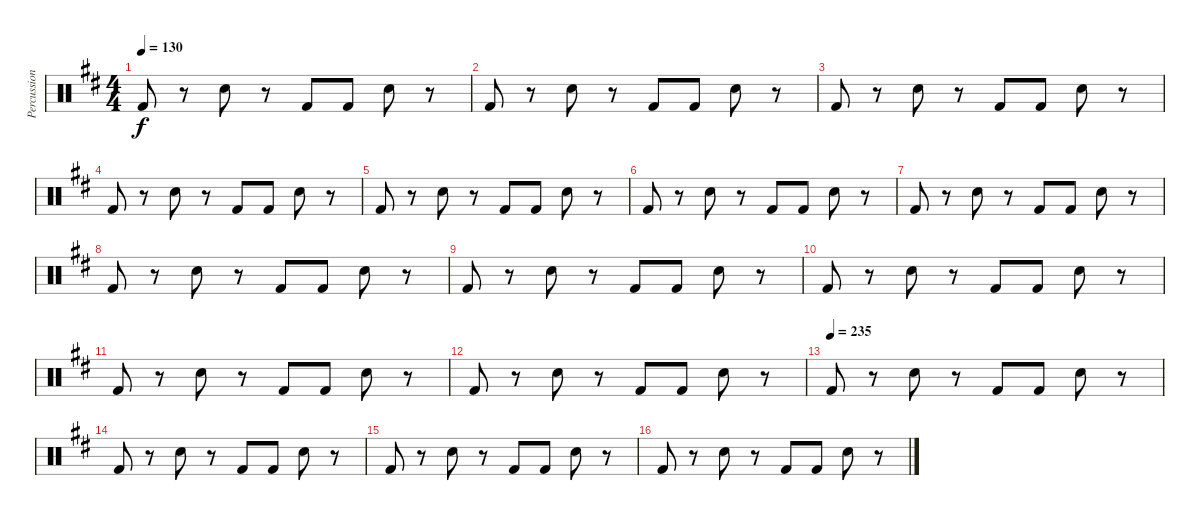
\track ("Percussion" "Percussion") {instrument percussion}
\staff {score}
\articulation defaults
\ts (4 4)
\tempo 130
\clef neutral
\ks d "Kick (hit) 2".8{dy f}
r.8 "Snare (hit) 2".8 r.8 "Kick (hit) 2".8 "Kick (hit) 2".8 "Snare (hit) 2".8 r.8 |
"Kick (hit) 2".8 r.8 "Snare (hit) 2".8 r.8 "Kick (hit) 2".8 "Kick (hit) 2".8 "Snare (hit) 2".8 r.8 |
"Kick (hit) 2".8 r.8 "Snare (hit) 2".8 r.8 "Kick (hit) 2".8 "Kick (hit) 2".8 "Snare (hit) 2".8 r.8 |
"Kick (hit) 2".8 r.8 "Snare (hit) 2".8 r.8 "Kick (hit) 2".8 "Kick (hit) 2".8 "Snare (hit) 2".8 r.8 |
"Kick (hit) 2".8 r.8 "Snare (hit) 2".8 r.8 "Kick (hit) 2".8 "Kick (hit) 2".8 "Snare (hit) 2".8 r.8 |
"Kick (hit) 2".8 r.8 "Snare (hit) 2".8 r.8 "Kick (hit) 2".8 "Kick (hit) 2".8 "Snare (hit) 2".8 r.8 |
"Kick (hit) 2".8 r.8 "Snare (hit) 2".8 r.8 "Kick (hit) 2".8 "Kick (hit) 2".8 "Snare (hit) 2".8 r.8 |
"Kick (hit) 2".8 r.8 "Snare (hit) 2".8 r.8 "Kick (hit) 2".8 "Kick (hit) 2".8 "Snare (hit) 2".8 r.8 |
"Kick (hit) 2".8 r.8 "Snare (hit) 2".8 r.8 "Kick (hit) 2".8 "Kick (hit) 2".8 "Snare (hit) 2".8 r.8 |
"Kick (hit) 2".8 r.8 "Snare (hit) 2".8 r.8 "Kick (hit) 2".8 "Kick (hit) 2".8 "Snare (hit) 2".8 r.8 |
"Kick (hit) 2".8 r.8 "Snare (hit) 2".8 r.8 "Kick (hit) 2".8 "Kick (hit) 2".8 "Snare (hit) 2".8 r.8 |
"Kick (hit) 2".8 r.8 "Snare (hit) 2".8 r.8 "Kick (hit) 2".8 "Kick (hit) 2".8 "Snare (hit) 2".8 r.8 |
\tempo (235)
"Kick (hit) 2".8 r.8 "Snare (hit) 2".8 r.8 "Kick (hit) 2".8 "Kick (hit) 2".8 "Snare (hit) 2".8 r.8 |
"Kick (hit) 2".8 r.8 "Snare (hit) 2".8 r.8 "Kick (hit) 2".8 "Kick (hit) 2".8 "Snare (hit) 2".8 r.8 |
"Kick (hit) 2".8 r.8 "Snare (hit) 2".8 r.8 "Kick (hit) 2".8 "Kick (hit) 2".8 "Snare (hit) 2".8 r.8 |
"Kick (hit) 2".8 r.8 "Snare (hit) 2".8 r.8 "Kick (hit) 2".8 "Kick (hit) 2".8 "Snare (hit) 2".8 r.8
